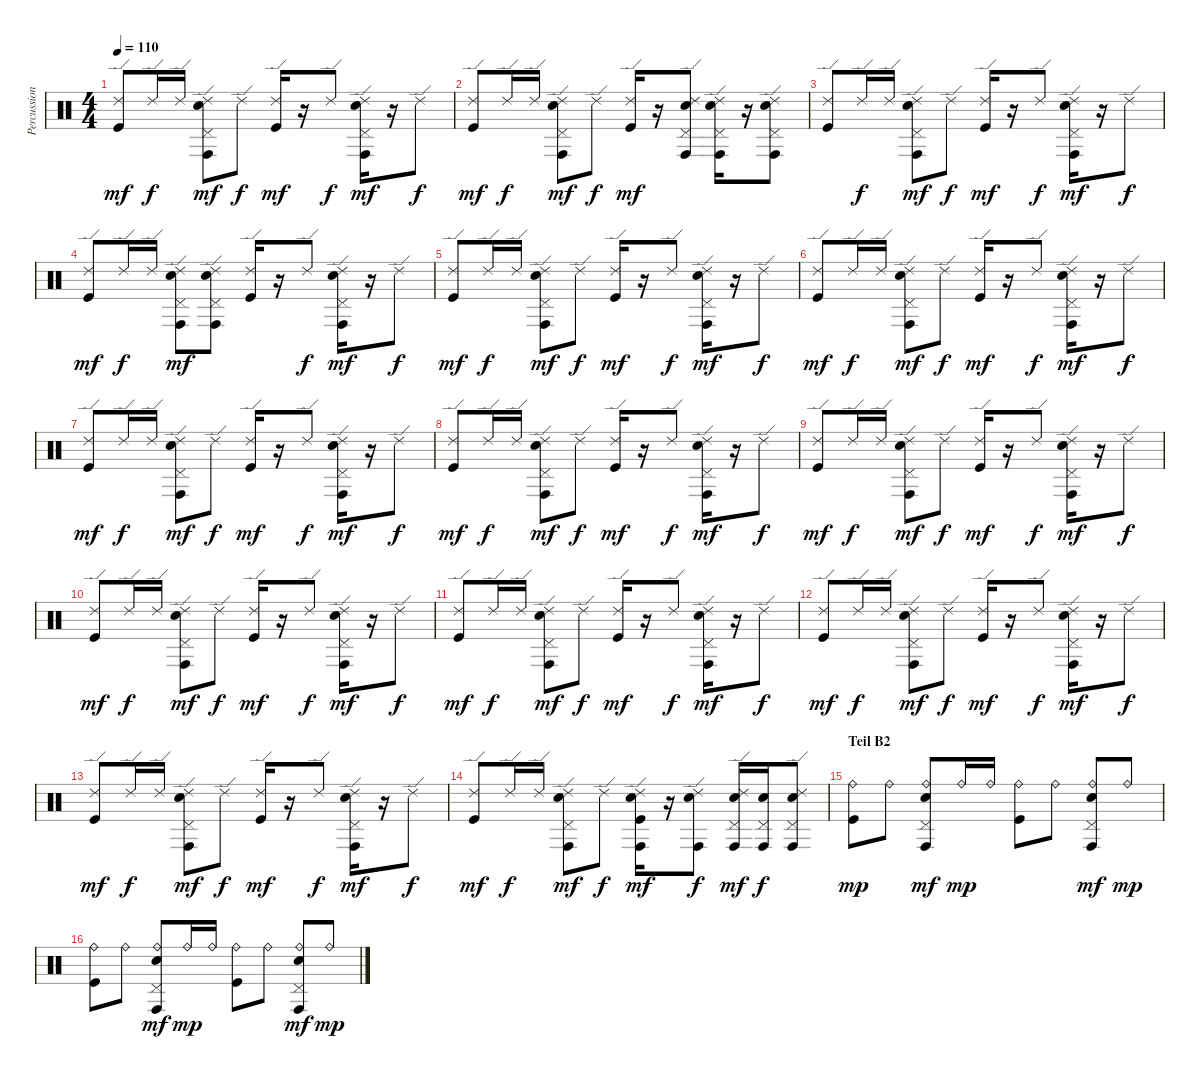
\track ("Percussion" "Percussion") {instrument percussion}
\staff {score}
\articulation defaults
\ts (4 4)
\tempo 110
\clef neutral
\ks c
("Ride (edge) 2" "Kick (hit)").8{dy mf} "Ride (edge) 2".16{dy f} "Ride (edge) 2".16 ("Ride (edge) 2" "Pedal Hi-Hat (hit)" "Conga high (hit)" "Electric Snare (hit)").8{dy mf} "Ride (edge) 2".8{dy f} ("Ride (edge) 2" "Kick (hit)").16{dy mf} r.16 "Ride (edge) 2".8{dy f} ("Ride (edge) 2" "Pedal Hi-Hat (hit)" "Conga high (hit)" "Electric Snare (hit)").16{dy mf} r.16 "Ride (edge) 2".8{dy f} |
("Ride (edge) 2" "Kick (hit)").8{dy mf} "Ride (edge) 2".16{dy f} "Ride (edge) 2".16 ("Ride (edge) 2" "Pedal Hi-Hat (hit)" "Conga high (hit)" "Electric Snare (hit)").8{dy mf} "Ride (edge) 2".8{dy f} ("Ride (edge) 2" "Kick (hit)").16{dy mf} r.16 ("Ride (edge) 2" "Pedal Hi-Hat (hit)" "Conga high (hit)" "Electric Snare (hit)").8 ("Ride (edge) 2" "Pedal Hi-Hat (hit)" "Conga high (hit)" "Electric Snare (hit)").16 r.16 ("Ride (edge) 2" "Pedal Hi-Hat (hit)" "Conga high (hit)" "Electric Snare (hit)").8 |
("Ride (edge) 2" "Kick (hit)").8 "Ride (edge) 2".16{dy f} "Ride (edge) 2".16 ("Ride (edge) 2" "Pedal Hi-Hat (hit)" "Conga high (hit)" "Electric Snare (hit)").8{dy mf} "Ride (edge) 2".8{dy f} ("Ride (edge) 2" "Kick (hit)").16{dy mf} r.16 "Ride (edge) 2".8{dy f} ("Ride (edge) 2" "Pedal Hi-Hat (hit)" "Conga high (hit)" "Electric Snare (hit)").16{dy mf} r.16 "Ride (edge) 2".8{dy f} |
("Ride (edge) 2" "Kick (hit)").8{dy mf} "Ride (edge) 2".16{dy f} "Ride (edge) 2".16 ("Ride (edge) 2" "Pedal Hi-Hat (hit)" "Conga high (hit)" "Electric Snare (hit)").8{dy mf} ("Ride (edge) 2" "Pedal Hi-Hat (hit)" "Conga high (hit)" "Electric Snare (hit)").8 ("Ride (edge) 2" "Kick (hit)").16 r.16 "Ride (edge) 2".8{dy f} ("Ride (edge) 2" "Pedal Hi-Hat (hit)" "Conga high (hit)" "Electric Snare (hit)").16{dy mf} r.16 "Ride (edge) 2".8{dy f} |
("Ride (edge) 2" "Kick (hit)").8{dy mf} "Ride (edge) 2".16{dy f} "Ride (edge) 2".16 ("Ride (edge) 2" "Pedal Hi-Hat (hit)" "Conga high (hit)" "Electric Snare (hit)").8{dy mf} "Ride (edge) 2".8{dy f} ("Ride (edge) 2" "Kick (hit)").16{dy mf} r.16 "Ride (edge) 2".8{dy f} ("Ride (edge) 2" "Pedal Hi-Hat (hit)" "Conga high (hit)" "Electric Snare (hit)").16{dy mf} r.16 "Ride (edge) 2".8{dy f} |
("Ride (edge) 2" "Kick (hit)").8{dy mf} "Ride (edge) 2".16{dy f} "Ride (edge) 2".16 ("Ride (edge) 2" "Pedal Hi-Hat (hit)" "Conga high (hit)" "Electric Snare (hit)").8{dy mf} "Ride (edge) 2".8{dy f} ("Ride (edge) 2" "Kick (hit)").16{dy mf} r.16 "Ride (edge) 2".8{dy f} ("Ride (edge) 2" "Pedal Hi-Hat (hit)" "Conga high (hit)" "Electric Snare (hit)").16{dy mf} r.16 "Ride (edge) 2".8{dy f} |
("Ride (edge) 2" "Kick (hit)").8{dy mf} "Ride (edge) 2".16{dy f} "Ride (edge) 2".16 ("Ride (edge) 2" "Pedal Hi-Hat (hit)" "Conga high (hit)" "Electric Snare (hit)").8{dy mf} "Ride (edge) 2".8{dy f} ("Ride (edge) 2" "Kick (hit)").16{dy mf} r.16 "Ride (edge) 2".8{dy f} ("Ride (edge) 2" "Pedal Hi-Hat (hit)" "Conga high (hit)" "Electric Snare (hit)").16{dy mf} r.16 "Ride (edge) 2".8{dy f} |
("Ride (edge) 2" "Kick (hit)").8{dy mf} "Ride (edge) 2".16{dy f} "Ride (edge) 2".16 ("Ride (edge) 2" "Pedal Hi-Hat (hit)" "Conga high (hit)" "Electric Snare (hit)").8{dy mf} "Ride (edge) 2".8{dy f} ("Ride (edge) 2" "Kick (hit)").16{dy mf} r.16 "Ride (edge) 2".8{dy f} ("Ride (edge) 2" "Pedal Hi-Hat (hit)" "Conga high (hit)" "Electric Snare (hit)").16{dy mf} r.16 "Ride (edge) 2".8{dy f} |
("Ride (edge) 2" "Kick (hit)").8{dy mf} "Ride (edge) 2".16{dy f} "Ride (edge) 2".16 ("Ride (edge) 2" "Pedal Hi-Hat (hit)" "Conga high (hit)" "Electric Snare (hit)").8{dy mf} "Ride (edge) 2".8{dy f} ("Ride (edge) 2" "Kick (hit)").16{dy mf} r.16 "Ride (edge) 2".8{dy f} ("Ride (edge) 2" "Pedal Hi-Hat (hit)" "Conga high (hit)" "Electric Snare (hit)").16{dy mf} r.16 "Ride (edge) 2".8{dy f} |
("Ride (edge) 2" "Kick (hit)").8{dy mf} "Ride (edge) 2".16{dy f} "Ride (edge) 2".16 ("Ride (edge) 2" "Pedal Hi-Hat (hit)" "Conga high (hit)" "Electric Snare (hit)").8{dy mf} "Ride (edge) 2".8{dy f} ("Ride (edge) 2" "Kick (hit)").16{dy mf} r.16 "Ride (edge) 2".8{dy f} ("Ride (edge) 2" "Pedal Hi-Hat (hit)" "Conga high (hit)" "Electric Snare (hit)").16{dy mf} r.16 "Ride (edge) 2".8{dy f} |
("Ride (edge) 2" "Kick (hit)").8{dy mf} "Ride (edge) 2".16{dy f} "Ride (edge) 2".16 ("Ride (edge) 2" "Pedal Hi-Hat (hit)" "Conga high (hit)" "Electric Snare (hit)").8{dy mf} "Ride (edge) 2".8{dy f} ("Ride (edge) 2" "Kick (hit)").16{dy mf} r.16 "Ride (edge) 2".8{dy f} ("Ride (edge) 2" "Pedal Hi-Hat (hit)" "Conga high (hit)" "Electric Snare (hit)").16{dy mf} r.16 "Ride (edge) 2".8{dy f} |
("Ride (edge) 2" "Kick (hit)").8{dy mf} "Ride (edge) 2".16{dy f} "Ride (edge) 2".16 ("Ride (edge) 2" "Pedal Hi-Hat (hit)" "Conga high (hit)" "Electric Snare (hit)").8{dy mf} "Ride (edge) 2".8{dy f} ("Ride (edge) 2" "Kick (hit)").16{dy mf} r.16 "Ride (edge) 2".8{dy f} ("Ride (edge) 2" "Pedal Hi-Hat (hit)" "Conga high (hit)" "Electric Snare (hit)").16{dy mf} r.16 "Ride (edge) 2".8{dy f} |
("Ride (edge) 2" "Kick (hit)").8{dy mf} "Ride (edge) 2".16{dy f} "Ride (edge) 2".16 ("Ride (edge) 2" "Pedal Hi-Hat (hit)" "Conga high (hit)" "Electric Snare (hit)").8{dy mf} "Ride (edge) 2".8{dy f} ("Ride (edge) 2" "Kick (hit)").16{dy mf} r.16 "Ride (edge) 2".8{dy f} ("Ride (edge) 2" "Pedal Hi-Hat (hit)" "Conga high (hit)" "Electric Snare (hit)").16{dy mf} r.16 "Ride (edge) 2".8{dy f} |
("Ride (edge) 2" "Kick (hit)").8{dy mf} "Ride (edge) 2".16{dy f} "Ride (edge) 2".16 ("Ride (edge) 2" "Pedal Hi-Hat (hit)" "Conga high (hit)" "Electric Snare (hit)").8{dy mf} "Ride (edge) 2".8{dy f} ("Ride (edge) 2" "Conga high (hit)" "Electric Snare (hit)" "Kick (hit)").16{dy mf} r.16 ("Ride (edge) 2" "Conga high (hit)" "Electric Snare (hit)").8{dy f} ("Ride (edge) 2" "Pedal Hi-Hat (hit)" "Conga high (hit)" "Electric Snare (hit)").16{dy mf} ("Pedal Hi-Hat (hit)" "Conga high (hit)" "Electric Snare (hit)").16{dy f} ("Ride (edge) 2" "Pedal Hi-Hat (hit)" "Conga high (hit)" "Electric Snare (hit)").8 |
\section ("" "Teil B2")
("Ride (bell)" "Kick (hit)").8{dy mp} "Ride (bell)".8 ("Ride (bell)" "Pedal Hi-Hat (hit)" "Conga high (hit)" "Electric Snare (hit)").8{dy mf} "Ride (bell)".16{dy mp} "Ride (bell)".16 ("Ride (bell)" "Kick (hit)").8 "Ride (bell)".8 ("Ride (bell)" "Pedal Hi-Hat (hit)" "Conga high (hit)" "Electric Snare (hit)").8{dy mf} "Ride (bell)".8{dy mp} |
("Ride (bell)" "Kick (hit)").8 "Ride (bell)".8 ("Ride (bell)" "Pedal Hi-Hat (hit)" "Conga high (hit)" "Electric Snare (hit)").8{dy mf} "Ride (bell)".16{dy mp} "Ride (bell)".16 ("Ride (bell)" "Kick (hit)").8 "Ride (bell)".8 ("Ride (bell)" "Pedal Hi-Hat (hit)" "Conga high (hit)" "Electric Snare (hit)").8{dy mf} "Ride (bell)".8{dy mp}
